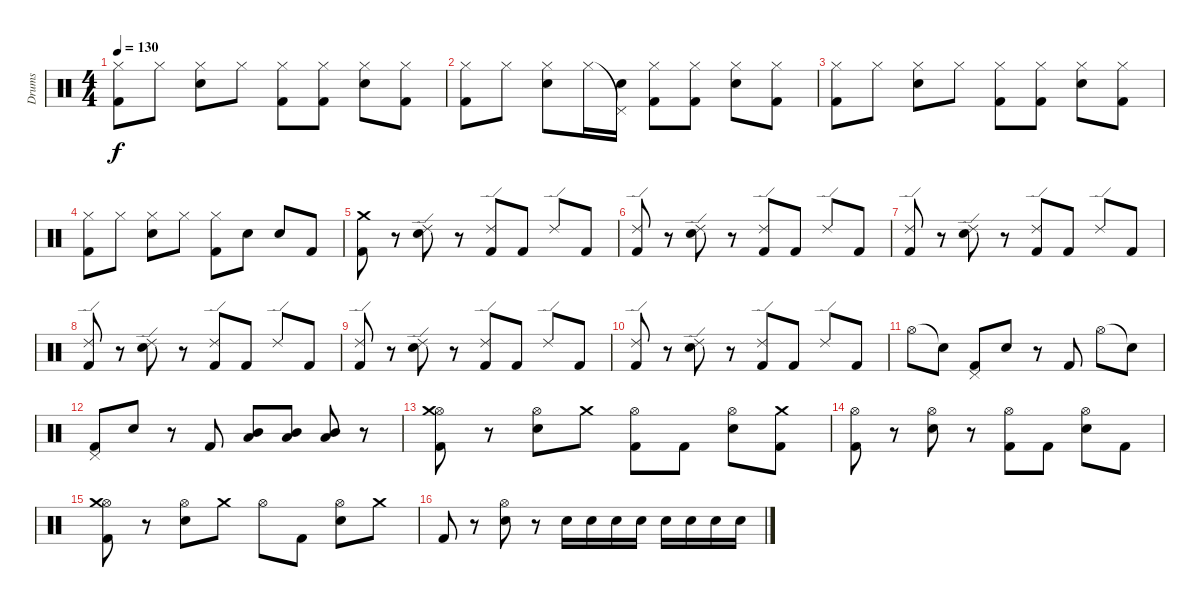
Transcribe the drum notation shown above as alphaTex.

\track ("Drums" "Drums") {instrument percussion}
\staff {score}
\articulation defaults
\ts (4 4)
\tempo 130
\clef neutral
\ks c
("Hi-Hat (closed)" "Kick (hit) 2").8{dy f} "Hi-Hat (closed)".8 ("Hi-Hat (closed)" "Electric Snare (hit)").8 "Hi-Hat (closed)".8 ("Hi-Hat (closed)" "Kick (hit) 2").8 ("Hi-Hat (closed)" "Kick (hit) 2").8 ("Hi-Hat (closed)" "Electric Snare (hit)").8 ("Hi-Hat (closed)" "Kick (hit) 2").8 |
("Hi-Hat (closed)" "Kick (hit) 2").8 "Hi-Hat (closed)".8 ("Hi-Hat (closed)" "Electric Snare (hit)").8 "Hi-Hat (closed)".16 ("Pedal Hi-Hat (hit)"{t} "Electric Snare (hit)").16 ("Hi-Hat (closed)" "Kick (hit) 2").8 ("Hi-Hat (closed)" "Kick (hit) 2").8 ("Hi-Hat (closed)" "Electric Snare (hit)").8 ("Hi-Hat (closed)" "Kick (hit) 2").8 |
("Hi-Hat (closed)" "Kick (hit) 2").8 "Hi-Hat (closed)".8 ("Hi-Hat (closed)" "Electric Snare (hit)").8 "Hi-Hat (closed)".8 ("Hi-Hat (closed)" "Kick (hit) 2").8 ("Hi-Hat (closed)" "Kick (hit) 2").8 ("Hi-Hat (closed)" "Electric Snare (hit)").8 ("Hi-Hat (closed)" "Kick (hit) 2").8 |
("Hi-Hat (closed)" "Kick (hit) 2").8 "Hi-Hat (closed)".8 ("Hi-Hat (closed)" "Electric Snare (hit)").8 "Hi-Hat (closed)".8 ("Hi-Hat (closed)" "Kick (hit) 2").8 "Electric Snare (hit)".8 "Electric Snare (hit)".8 "Kick (hit) 2".8 |
("Kick (hit) 2" "Crash medium (hit)").8 r.8 ("Ride (edge) 2" "Electric Snare (hit)").8 r.8 ("Ride (edge) 2" "Kick (hit) 2").8 "Kick (hit) 2".8 "Ride (edge) 2".8 "Kick (hit) 2".8 |
("Ride (edge) 2" "Kick (hit) 2").8 r.8 ("Ride (edge) 2" "Electric Snare (hit)").8 r.8 ("Ride (edge) 2" "Kick (hit) 2").8 "Kick (hit) 2".8 "Ride (edge) 2".8 "Kick (hit) 2".8 |
("Ride (edge) 2" "Kick (hit) 2").8 r.8 ("Ride (edge) 2" "Electric Snare (hit)").8 r.8 ("Ride (edge) 2" "Kick (hit) 2").8 "Kick (hit) 2".8 "Ride (edge) 2".8 "Kick (hit) 2".8 |
("Ride (edge) 2" "Kick (hit) 2").8 r.8 ("Ride (edge) 2" "Electric Snare (hit)").8 r.8 ("Ride (edge) 2" "Kick (hit) 2").8 "Kick (hit) 2".8 "Ride (edge) 2".8 "Kick (hit) 2".8 |
("Ride (edge) 2" "Kick (hit) 2").8 r.8 ("Ride (edge) 2" "Electric Snare (hit)").8 r.8 ("Ride (edge) 2" "Kick (hit) 2").8 "Kick (hit) 2".8 "Ride (edge) 2".8 "Kick (hit) 2".8 |
("Ride (edge) 2" "Kick (hit) 2").8 r.8 ("Ride (edge) 2" "Electric Snare (hit)").8 r.8 ("Ride (edge) 2" "Kick (hit) 2").8 "Kick (hit) 2".8 "Ride (edge) 2".8 "Kick (hit) 2".8 |
"Hi-Hat (open)".8 "Snare (hit)"{t}.8 ("Kick (hit) 2" "Pedal Hi-Hat (hit)").8 "Electric Snare (hit)".8 r.8 "Kick (hit) 2".8 "Hi-Hat (open)".8 "Snare (hit)"{t}.8 |
("Kick (hit) 2" "Pedal Hi-Hat (hit)").8 "Electric Snare (hit)".8 r.8 "Kick (hit) 2".8 ("Low Tom (hit)" "Mid Tom (hit)").8 ("Low Tom (hit)" "Mid Tom (hit)").8 ("Low Tom (hit)" "Mid Tom (hit)").8 r.8 |
("Hi-Hat (open)" "Kick (hit) 2" "Crash medium (hit)").8 r.8 ("Hi-Hat (open)" "Electric Snare (hit)").8 "Crash medium (hit)".8 ("Hi-Hat (open)" "Kick (hit) 2").8 "Kick (hit) 2".8 ("Hi-Hat (open)" "Electric Snare (hit)").8 ("Kick (hit) 2" "Crash medium (hit)").8 |
("Hi-Hat (open)" "Kick (hit) 2").8 r.8 ("Hi-Hat (open)" "Electric Snare (hit)").8 r.8 ("Hi-Hat (open)" "Kick (hit) 2").8 "Kick (hit) 2".8 ("Hi-Hat (open)" "Electric Snare (hit)").8 "Kick (hit) 2".8 |
("Hi-Hat (open)" "Kick (hit) 2" "Crash medium (hit)").8 r.8 ("Hi-Hat (open)" "Electric Snare (hit)").8 "Crash medium (hit)".8 "Hi-Hat (open)".8 "Kick (hit) 2".8 ("Hi-Hat (open)" "Electric Snare (hit)").8 "Crash medium (hit)".8 |
"Kick (hit) 2".8 r.8 ("Hi-Hat (open)" "Electric Snare (hit)").8 r.8 "Electric Snare (hit)".16 "Electric Snare (hit)".16 "Electric Snare (hit)".16 "Electric Snare (hit)".16 "Electric Snare (hit)".16 "Electric Snare (hit)".16 "Electric Snare (hit)".16 "Electric Snare (hit)".16
